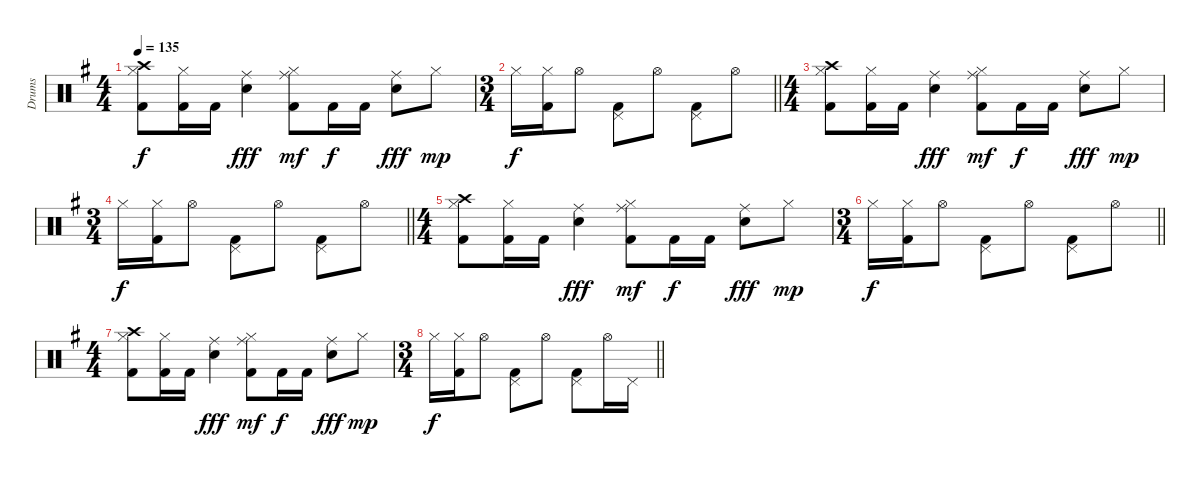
\track ("Drums" "Drums") {instrument percussion}
\staff {score}
\articulation defaults
\ts (4 4)
\tempo 135
\clef neutral
\ks g
("Hi-Hat (closed)" "Crash high (hit)" "Kick (hit) 2").8{dy f} ("Hi-Hat (closed)" "Kick (hit) 2").16 "Kick (hit) 2".16 ("Ride (middle)" "Electric Snare (hit)").4{dy fff} ("Hi-Hat (closed)" "Ride (middle)" "Kick (hit) 2").8{dy mf} "Kick (hit) 2".16{dy f} "Kick (hit) 2".16 ("Ride (middle)" "Electric Snare (hit)").8{dy fff} "Hi-Hat (closed)".8{dy mp} |
\ts (3 4)
\barLineRight lightlight "Hi-Hat (closed)".16{dy f}
("Hi-Hat (closed)" "Kick (hit) 2").16 "Hi-Hat (open)".8 ("Pedal Hi-Hat (hit)" "Kick (hit) 2").8 "Hi-Hat (open)".8 ("Pedal Hi-Hat (hit)" "Kick (hit) 2").8 "Hi-Hat (open)".8 |
\ts (4 4)
("Hi-Hat (closed)" "Crash high (hit)" "Kick (hit) 2").8 ("Hi-Hat (closed)" "Kick (hit) 2").16 "Kick (hit) 2".16 ("Ride (middle)" "Electric Snare (hit)").4{dy fff} ("Hi-Hat (closed)" "Ride (middle)" "Kick (hit) 2").8{dy mf} "Kick (hit) 2".16{dy f} "Kick (hit) 2".16 ("Ride (middle)" "Electric Snare (hit)").8{dy fff} "Hi-Hat (closed)".8{dy mp} |
\ts (3 4)
\barLineRight lightlight "Hi-Hat (closed)".16{dy f}
("Hi-Hat (closed)" "Kick (hit) 2").16 "Hi-Hat (open)".8 ("Pedal Hi-Hat (hit)" "Kick (hit) 2").8 "Hi-Hat (open)".8 ("Pedal Hi-Hat (hit)" "Kick (hit) 2").8 "Hi-Hat (open)".8 |
\ts (4 4)
("Hi-Hat (closed)" "Crash high (hit)" "Kick (hit) 2").8 ("Hi-Hat (closed)" "Kick (hit) 2").16 "Kick (hit) 2".16 ("Ride (middle)" "Electric Snare (hit)").4{dy fff} ("Hi-Hat (closed)" "Ride (middle)" "Kick (hit) 2").8{dy mf} "Kick (hit) 2".16{dy f} "Kick (hit) 2".16 ("Ride (middle)" "Electric Snare (hit)").8{dy fff} "Hi-Hat (closed)".8{dy mp} |
\ts (3 4)
\barLineRight lightlight "Hi-Hat (closed)".16{dy f}
("Hi-Hat (closed)" "Kick (hit) 2").16 "Hi-Hat (open)".8 ("Pedal Hi-Hat (hit)" "Kick (hit) 2").8 "Hi-Hat (open)".8 ("Pedal Hi-Hat (hit)" "Kick (hit) 2").8 "Hi-Hat (open)".8 |
\ts (4 4)
("Hi-Hat (closed)" "Crash high (hit)" "Kick (hit) 2").8 ("Hi-Hat (closed)" "Kick (hit) 2").16 "Kick (hit) 2".16 ("Ride (middle)" "Electric Snare (hit)").4{dy fff} ("Hi-Hat (closed)" "Ride (middle)" "Kick (hit) 2").8{dy mf} "Kick (hit) 2".16{dy f} "Kick (hit) 2".16 ("Ride (middle)" "Electric Snare (hit)").8{dy fff} "Hi-Hat (closed)".8{dy mp} |
\ts (3 4)
\barLineRight lightlight "Hi-Hat (closed)".16{dy f}
("Hi-Hat (closed)" "Kick (hit) 2").16 "Hi-Hat (open)".8 ("Pedal Hi-Hat (hit)" "Kick (hit) 2").8 "Hi-Hat (open)".8 ("Pedal Hi-Hat (hit)" "Kick (hit) 2").8 "Hi-Hat (open)".16 "Pedal Hi-Hat (hit)".16
